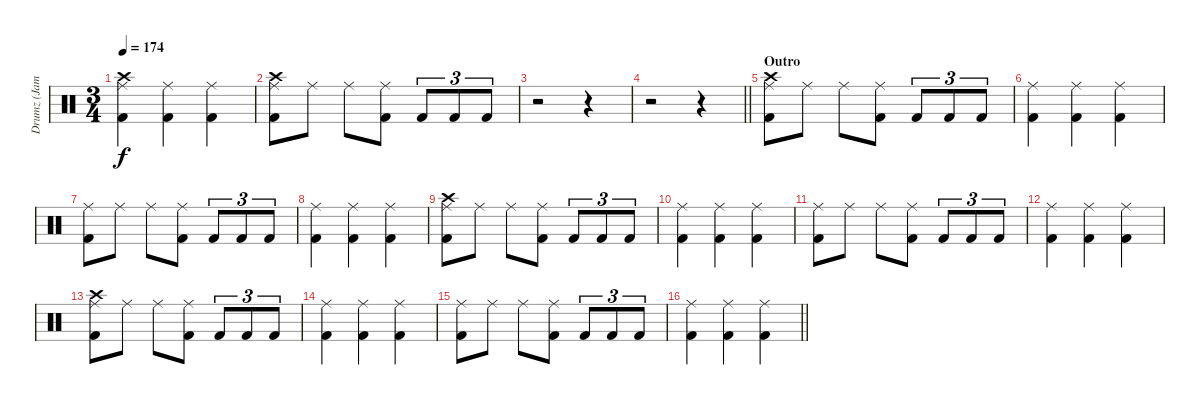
\track ("Drumz (James Kottak)" "Drumz (Jam") {instrument percussion}
\staff {score}
\articulation defaults
\ts (3 4)
\tempo 174
\clef neutral
\ks c
("Ride (middle)" "Crash high (hit)" "Kick (hit) 2").4{dy f} ("Kick (hit) 2" "Ride (middle)").4 ("Ride (middle)" "Kick (hit) 2").4 |
("Ride (middle)" "Crash high (hit)" "Kick (hit) 2").8 "Ride (middle)".8 "Ride (middle)".8 ("Ride (middle)" "Kick (hit) 2").8 "Kick (hit) 2".8{tu (3 2)} "Kick (hit) 2".8{tu (3 2)} "Kick (hit) 2".8{tu (3 2)} |
r.2 r.4 |
\barLineRight lightlight
r.2 r.4 |
\section ("" "Outro")
("Ride (middle)" "Crash high (hit)" "Kick (hit) 2").8 "Ride (middle)".8 "Ride (middle)".8 ("Ride (middle)" "Kick (hit) 2").8 "Kick (hit) 2".8{tu (3 2)} "Kick (hit) 2".8{tu (3 2)} "Kick (hit) 2".8{tu (3 2)} |
("Ride (middle)" "Kick (hit) 2").4 ("Kick (hit) 2" "Ride (middle)").4 ("Ride (middle)" "Kick (hit) 2").4 |
("Ride (middle)" "Kick (hit) 2").8 "Ride (middle)".8 "Ride (middle)".8 ("Ride (middle)" "Kick (hit) 2").8 "Kick (hit) 2".8{tu (3 2)} "Kick (hit) 2".8{tu (3 2)} "Kick (hit) 2".8{tu (3 2)} |
("Ride (middle)" "Kick (hit) 2").4 ("Kick (hit) 2" "Ride (middle)").4 ("Ride (middle)" "Kick (hit) 2").4 |
("Ride (middle)" "Crash high (hit)" "Kick (hit) 2").8 "Ride (middle)".8 "Ride (middle)".8 ("Ride (middle)" "Kick (hit) 2").8 "Kick (hit) 2".8{tu (3 2)} "Kick (hit) 2".8{tu (3 2)} "Kick (hit) 2".8{tu (3 2)} |
("Ride (middle)" "Kick (hit) 2").4 ("Kick (hit) 2" "Ride (middle)").4 ("Ride (middle)" "Kick (hit) 2").4 |
("Ride (middle)" "Kick (hit) 2").8 "Ride (middle)".8 "Ride (middle)".8 ("Ride (middle)" "Kick (hit) 2").8 "Kick (hit) 2".8{tu (3 2)} "Kick (hit) 2".8{tu (3 2)} "Kick (hit) 2".8{tu (3 2)} |
("Ride (middle)" "Kick (hit) 2").4 ("Kick (hit) 2" "Ride (middle)").4 ("Ride (middle)" "Kick (hit) 2").4 |
("Ride (middle)" "Crash high (hit)" "Kick (hit) 2").8 "Ride (middle)".8 "Ride (middle)".8 ("Ride (middle)" "Kick (hit) 2").8 "Kick (hit) 2".8{tu (3 2)} "Kick (hit) 2".8{tu (3 2)} "Kick (hit) 2".8{tu (3 2)} |
("Ride (middle)" "Kick (hit) 2").4 ("Kick (hit) 2" "Ride (middle)").4 ("Ride (middle)" "Kick (hit) 2").4 |
("Ride (middle)" "Kick (hit) 2").8 "Ride (middle)".8 "Ride (middle)".8 ("Ride (middle)" "Kick (hit) 2").8 "Kick (hit) 2".8{tu (3 2)} "Kick (hit) 2".8{tu (3 2)} "Kick (hit) 2".8{tu (3 2)} |
\barLineRight lightlight
("Ride (middle)" "Kick (hit) 2").4 ("Kick (hit) 2" "Ride (middle)").4 ("Ride (middle)" "Kick (hit) 2").4
